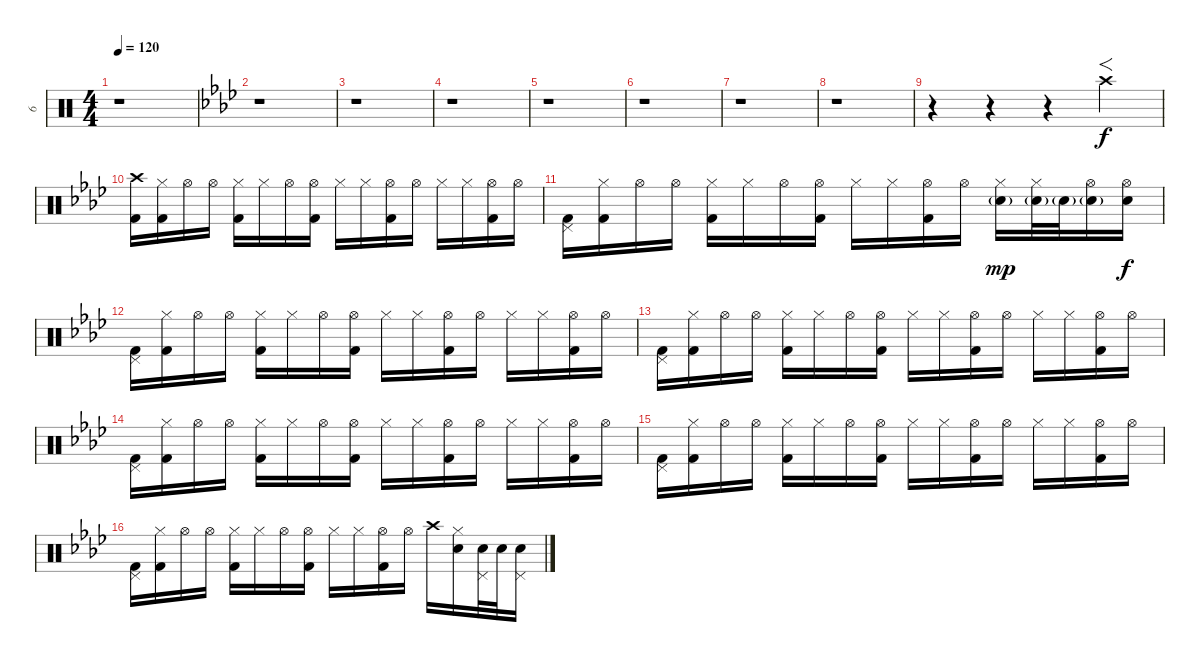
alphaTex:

\track ("6" "6") {instrument percussion}
\staff {score}
\articulation defaults
\ts (4 4)
\tempo 120
\clef neutral
\ks c
r.1{dy f} |
\ks fminor
r.1 |
r.1 |
r.1 |
r.1 |
r.1 |
r.1 |
r.1 |
r.4 r.4 r.4 "Crash high (hit)".4{f} |
("Crash high (hit)" "Kick (hit) 2").16{balance 0} ("Hi-Hat (closed)" "Kick (hit) 2").16 "Hi-Hat (open)".16 "Hi-Hat (open)".16 ("Hi-Hat (closed)" "Kick (hit) 2").16 "Hi-Hat (closed)".16 "Hi-Hat (open)".16 ("Hi-Hat (open)" "Kick (hit) 2").16 "Hi-Hat (closed)".16 "Hi-Hat (closed)".16 ("Hi-Hat (open)" "Kick (hit) 2").16 "Hi-Hat (open)".16 "Hi-Hat (closed)".16 "Hi-Hat (closed)".16 ("Hi-Hat (open)" "Kick (hit) 2").16 "Hi-Hat (open)".16 |
("Pedal Hi-Hat (hit)" "Kick (hit) 2").16 ("Hi-Hat (closed)" "Kick (hit) 2").16 "Hi-Hat (open)".16 "Hi-Hat (open)".16 ("Hi-Hat (closed)" "Kick (hit) 2").16 "Hi-Hat (closed)".16 "Hi-Hat (open)".16 ("Hi-Hat (open)" "Kick (hit) 2").16 "Hi-Hat (closed)".16 "Hi-Hat (closed)".16 ("Hi-Hat (open)" "Kick (hit) 2").16{balance 16} "Hi-Hat (open)".16 ("Hi-Hat (closed)" "Electric Snare (hit)"{g}).16{dy mp} ("Hi-Hat (closed)" "Electric Snare (hit)"{g}).32 "Electric Snare (hit)"{g}.32 ("Hi-Hat (open)" "Electric Snare (hit)"{g}).16 ("Hi-Hat (open)" "Electric Snare (hit)").16{dy f} |
("Pedal Hi-Hat (hit)" "Kick (hit) 2").16 ("Hi-Hat (closed)" "Kick (hit) 2").16 "Hi-Hat (open)".16 "Hi-Hat (open)".16 ("Hi-Hat (closed)" "Kick (hit) 2").16 "Hi-Hat (closed)".16 "Hi-Hat (open)".16 ("Hi-Hat (open)" "Kick (hit) 2").16 "Hi-Hat (closed)".16 "Hi-Hat (closed)".16 ("Hi-Hat (open)" "Kick (hit) 2").16 "Hi-Hat (open)".16 "Hi-Hat (closed)".16 "Hi-Hat (closed)".16 ("Hi-Hat (open)" "Kick (hit) 2").16 "Hi-Hat (open)".16 |
("Pedal Hi-Hat (hit)" "Kick (hit) 2").16 ("Hi-Hat (closed)" "Kick (hit) 2").16 "Hi-Hat (open)".16 "Hi-Hat (open)".16 ("Hi-Hat (closed)" "Kick (hit) 2").16 "Hi-Hat (closed)".16 "Hi-Hat (open)".16 ("Hi-Hat (open)" "Kick (hit) 2").16 "Hi-Hat (closed)".16 "Hi-Hat (closed)".16 ("Hi-Hat (open)" "Kick (hit) 2").16 "Hi-Hat (open)".16 "Hi-Hat (closed)".16 "Hi-Hat (closed)".16 ("Hi-Hat (open)" "Kick (hit) 2").16{volume 14 balance 0} "Hi-Hat (open)".16 |
("Pedal Hi-Hat (hit)" "Kick (hit) 2").16 ("Hi-Hat (closed)" "Kick (hit) 2").16 "Hi-Hat (open)".16 "Hi-Hat (open)".16 ("Hi-Hat (closed)" "Kick (hit) 2").16 "Hi-Hat (closed)".16 "Hi-Hat (open)".16 ("Hi-Hat (open)" "Kick (hit) 2").16 "Hi-Hat (closed)".16 "Hi-Hat (closed)".16 ("Hi-Hat (open)" "Kick (hit) 2").16 "Hi-Hat (open)".16 "Hi-Hat (closed)".16 "Hi-Hat (closed)".16 ("Hi-Hat (open)" "Kick (hit) 2").16 "Hi-Hat (open)".16 |
("Pedal Hi-Hat (hit)" "Kick (hit) 2").16 ("Hi-Hat (closed)" "Kick (hit) 2").16 "Hi-Hat (open)".16 "Hi-Hat (open)".16 ("Hi-Hat (closed)" "Kick (hit) 2").16 "Hi-Hat (closed)".16 "Hi-Hat (open)".16 ("Hi-Hat (open)" "Kick (hit) 2").16 "Hi-Hat (closed)".16 "Hi-Hat (closed)".16 ("Hi-Hat (open)" "Kick (hit) 2").16 "Hi-Hat (open)".16 "Hi-Hat (closed)".16 "Hi-Hat (closed)".16 ("Hi-Hat (open)" "Kick (hit) 2").16 "Hi-Hat (open)".16 |
("Pedal Hi-Hat (hit)" "Kick (hit) 2").16 ("Hi-Hat (closed)" "Kick (hit) 2").16 "Hi-Hat (open)".16 "Hi-Hat (open)".16 ("Hi-Hat (closed)" "Kick (hit) 2").16 "Hi-Hat (closed)".16{balance 8} "Hi-Hat (open)".16 ("Hi-Hat (open)" "Kick (hit) 2").16 "Hi-Hat (closed)".16 "Hi-Hat (closed)".16 ("Hi-Hat (open)" "Kick (hit) 2").16 "Hi-Hat (open)".16 "Crash high (hit)".16 ("Hi-Hat (closed)" "Snare (hit) 2").16 ("Pedal Hi-Hat (hit)" "Snare (hit) 2").32 "Snare (hit) 2".32 ("Pedal Hi-Hat (hit)" "Snare (hit) 2").16
